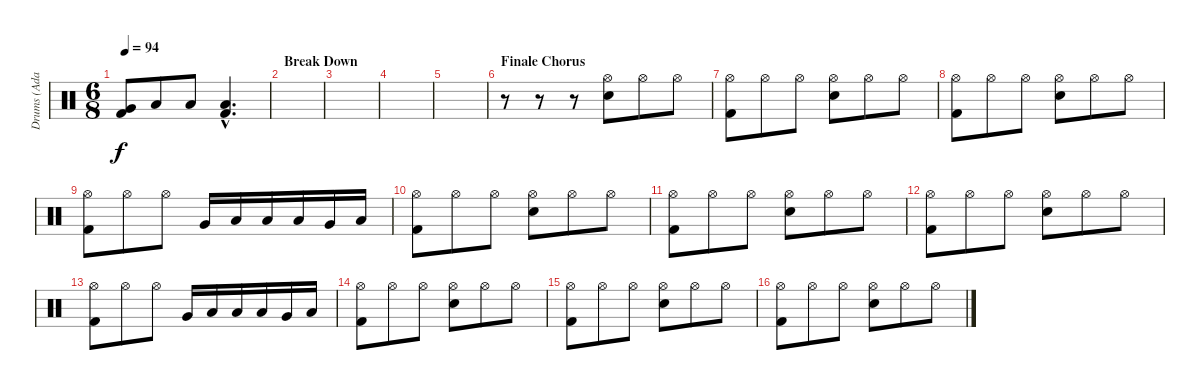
\track ("Drums (Adam)" "Drums (Ada") {instrument percussion}
\staff {score}
\articulation defaults
\ts (6 8)
\tempo 94
\clef neutral
\ks c
("Very Low Tom (hit)" "Kick (hit) 2").8{dy f} "Low Floor Tom (hit)".8 "Low Tom (hit)".8 ("Low Floor Tom (hit)"{hac} "Kick (hit) 2"{hac}).4{d} |
\section ("" "Break Down")
|
|
|
|
\section ("" "Finale Chorus")
r.8 r.8 r.8 ("Hi-Hat (open)" "Snare (hit) 2").8 "Hi-Hat (open)".8 "Hi-Hat (open)".8 |
("Hi-Hat (open)" "Kick (hit) 2").8 "Hi-Hat (open)".8 "Hi-Hat (open)".8 ("Hi-Hat (open)" "Snare (hit) 2").8 "Hi-Hat (open)".8 "Hi-Hat (open)".8 |
("Hi-Hat (open)" "Kick (hit) 2").8 "Hi-Hat (open)".8 "Hi-Hat (open)".8 ("Hi-Hat (open)" "Snare (hit) 2").8 "Hi-Hat (open)".8 "Hi-Hat (open)".8 |
("Hi-Hat (open)" "Kick (hit) 2").8 "Hi-Hat (open)".8 "Hi-Hat (open)".8 "Very Low Tom (hit)".16 "Low Floor Tom (hit)".16 "Low Tom (hit)".16 "Low Floor Tom (hit)".16 "Very Low Tom (hit)".16 "Low Floor Tom (hit)".16 |
("Hi-Hat (open)" "Kick (hit) 2").8 "Hi-Hat (open)".8 "Hi-Hat (open)".8 ("Hi-Hat (open)" "Snare (hit) 2").8 "Hi-Hat (open)".8 "Hi-Hat (open)".8 |
("Hi-Hat (open)" "Kick (hit) 2").8 "Hi-Hat (open)".8 "Hi-Hat (open)".8 ("Hi-Hat (open)" "Snare (hit) 2").8 "Hi-Hat (open)".8 "Hi-Hat (open)".8 |
("Hi-Hat (open)" "Kick (hit) 2").8 "Hi-Hat (open)".8 "Hi-Hat (open)".8 ("Hi-Hat (open)" "Snare (hit) 2").8 "Hi-Hat (open)".8 "Hi-Hat (open)".8 |
("Hi-Hat (open)" "Kick (hit) 2").8 "Hi-Hat (open)".8 "Hi-Hat (open)".8 "Very Low Tom (hit)".16 "Low Floor Tom (hit)".16 "Low Tom (hit)".16 "Low Floor Tom (hit)".16 "Very Low Tom (hit)".16 "Low Floor Tom (hit)".16 |
("Hi-Hat (open)" "Kick (hit) 2").8 "Hi-Hat (open)".8 "Hi-Hat (open)".8 ("Hi-Hat (open)" "Snare (hit) 2").8 "Hi-Hat (open)".8 "Hi-Hat (open)".8 |
("Hi-Hat (open)" "Kick (hit) 2").8 "Hi-Hat (open)".8 "Hi-Hat (open)".8 ("Hi-Hat (open)" "Snare (hit) 2").8 "Hi-Hat (open)".8 "Hi-Hat (open)".8 |
("Hi-Hat (open)" "Kick (hit) 2").8 "Hi-Hat (open)".8 "Hi-Hat (open)".8 ("Hi-Hat (open)" "Snare (hit) 2").8 "Hi-Hat (open)".8 "Hi-Hat (open)".8
